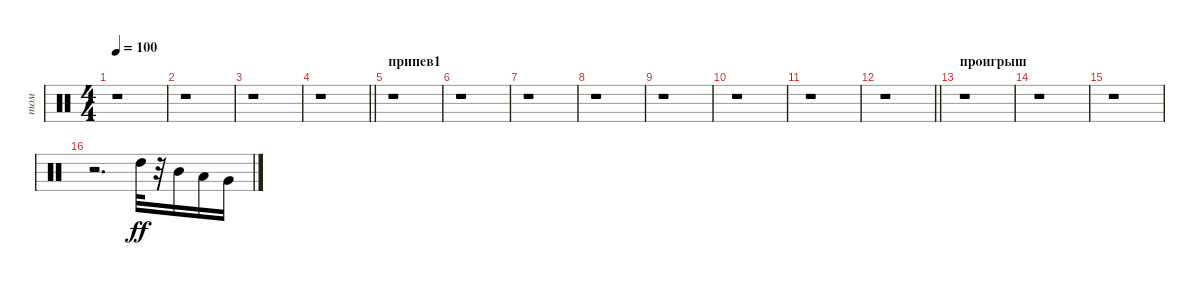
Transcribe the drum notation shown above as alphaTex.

\track ("том" "том") {instrument percussion}
\staff {score}
\articulation defaults
\ts (4 4)
\tempo 100
\clef neutral
\ks c
r.1{dy ff} |
r.1 |
r.1 |
\barLineRight lightlight
r.1 |
\section ("" "припев1")
r.1 |
r.1 |
r.1 |
r.1 |
r.1 |
r.1 |
r.1 |
\barLineRight lightlight
r.1 |
\section ("" "проигрыш")
r.1 |
r.1 |
r.1 |
r.2{d} "High Tom (hit)".32 r.32 "Mid Tom (hit)".16 "Low Tom (hit)".16 "Very Low Tom (hit)".16
